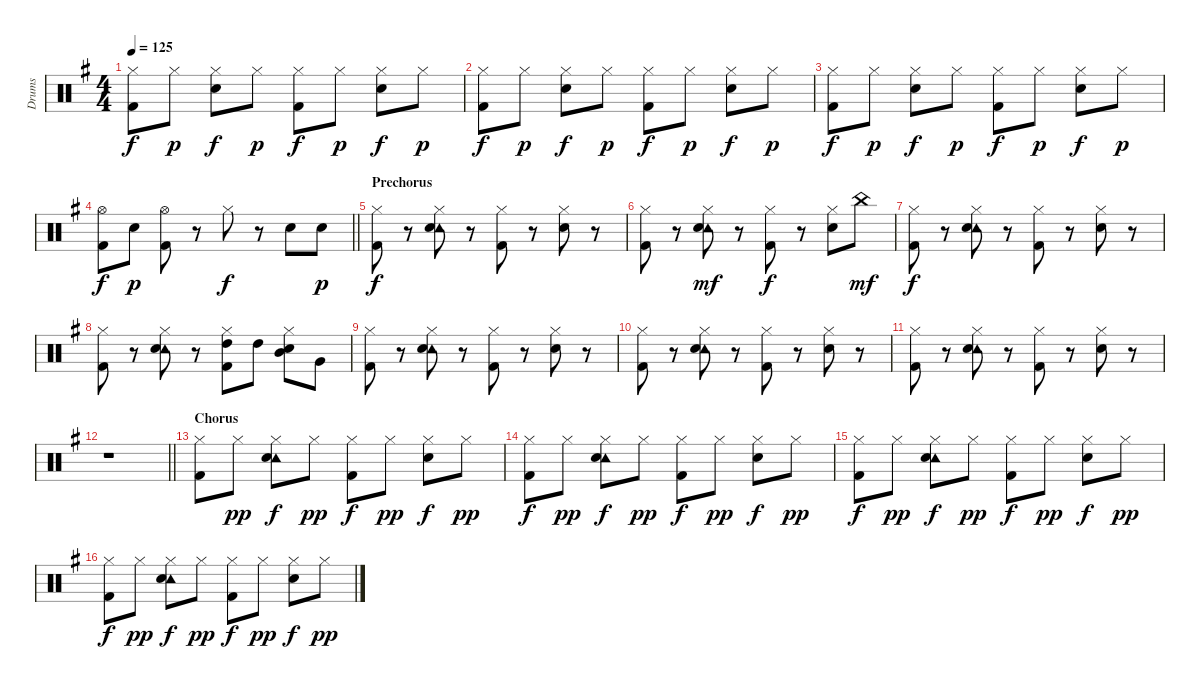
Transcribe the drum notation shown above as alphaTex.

\track ("Drums" "Drums") {instrument percussion}
\staff {score}
\articulation defaults
\ts (4 4)
\tempo 125
\clef neutral
\ks g
("Hi-Hat (closed)" "Kick (hit) 2").8{dy f} "Hi-Hat (closed)".8{dy p} ("Hi-Hat (closed)" "Electric Snare (hit)").8{dy f} "Hi-Hat (closed)".8{dy p} ("Hi-Hat (closed)" "Kick (hit) 2").8{dy f} "Hi-Hat (closed)".8{dy p} ("Hi-Hat (closed)" "Electric Snare (hit)").8{dy f} "Hi-Hat (closed)".8{dy p} |
("Hi-Hat (closed)" "Kick (hit) 2").8{dy f} "Hi-Hat (closed)".8{dy p} ("Hi-Hat (closed)" "Electric Snare (hit)").8{dy f} "Hi-Hat (closed)".8{dy p} ("Hi-Hat (closed)" "Kick (hit) 2").8{dy f} "Hi-Hat (closed)".8{dy p} ("Hi-Hat (closed)" "Electric Snare (hit)").8{dy f} "Hi-Hat (closed)".8{dy p} |
("Hi-Hat (closed)" "Kick (hit) 2").8{dy f} "Hi-Hat (closed)".8{dy p} ("Hi-Hat (closed)" "Electric Snare (hit)").8{dy f} "Hi-Hat (closed)".8{dy p} ("Hi-Hat (closed)" "Kick (hit) 2").8{dy f} "Hi-Hat (closed)".8{dy p} ("Hi-Hat (closed)" "Electric Snare (hit)").8{dy f} "Hi-Hat (closed)".8{dy p} |
\barLineRight lightlight
("Hi-Hat (open)" "Kick (hit) 2").8{dy f} "Electric Snare (hit)".8{dy p} ("Hi-Hat (open)" "Kick (hit) 2").8 r.8 "Hi-Hat (closed)".8{dy f} r.8 "Electric Snare (hit)".8 "Electric Snare (hit)".8{dy p} |
\section ("" "Prechorus")
("Hi-Hat (closed)" "Kick (hit) 2").8{dy f} r.8 ("Hi-Hat (closed)" "Tambourine (hit)" "Electric Snare (hit)").8 r.8 ("Hi-Hat (closed)" "Kick (hit) 2").8 r.8 ("Hi-Hat (closed)" "Electric Snare (hit)").8 r.8 |
("Hi-Hat (closed)" "Kick (hit) 2").8 r.8 ("Hi-Hat (closed)" "Tambourine (hit)" "Electric Snare (hit)").8{dy mf} r.8 ("Hi-Hat (closed)" "Kick (hit) 2").8{dy f} r.8 ("Hi-Hat (closed)" "Electric Snare (hit)").8 "China (hit)".8{dy mf} |
("Hi-Hat (closed)" "Kick (hit) 2").8{dy f} r.8 ("Hi-Hat (closed)" "Tambourine (hit)" "Electric Snare (hit)").8 r.8 ("Hi-Hat (closed)" "Kick (hit) 2").8 r.8 ("Hi-Hat (closed)" "Electric Snare (hit)").8 r.8 |
("Hi-Hat (closed)" "Kick (hit) 2").8 r.8 ("Hi-Hat (closed)" "Tambourine (hit)" "Electric Snare (hit)").8 r.8 ("Hi-Hat (closed)" "High Tom (hit)" "Kick (hit) 2").8 "High Tom (hit)".8 ("Hi-Hat (closed)" "Electric Snare (hit)" "Mid Tom (hit)").8 "Very Low Tom (hit)".8 |
("Hi-Hat (closed)" "Kick (hit) 2").8 r.8 ("Hi-Hat (closed)" "Tambourine (hit)" "Electric Snare (hit)").8 r.8 ("Hi-Hat (closed)" "Kick (hit) 2").8 r.8 ("Hi-Hat (closed)" "Electric Snare (hit)").8 r.8 |
("Hi-Hat (closed)" "Kick (hit) 2").8 r.8 ("Hi-Hat (closed)" "Tambourine (hit)" "Electric Snare (hit)").8 r.8 ("Hi-Hat (closed)" "Kick (hit) 2").8 r.8 ("Hi-Hat (closed)" "Electric Snare (hit)").8 r.8 |
("Hi-Hat (closed)" "Kick (hit) 2").8 r.8 ("Hi-Hat (closed)" "Tambourine (hit)" "Electric Snare (hit)").8 r.8 ("Hi-Hat (closed)" "Kick (hit) 2").8 r.8 ("Hi-Hat (closed)" "Electric Snare (hit)").8 r.8 |
\barLineRight lightlight
r.1 |
\section ("" "Chorus")
("Hi-Hat (closed)" "Kick (hit) 2").8 "Hi-Hat (closed)".8{dy pp} ("Hi-Hat (closed)" "Tambourine (hit)" "Electric Snare (hit)").8{dy f} "Hi-Hat (closed)".8{dy pp} ("Hi-Hat (closed)" "Kick (hit) 2").8{dy f} "Hi-Hat (closed)".8{dy pp} ("Hi-Hat (closed)" "Electric Snare (hit)").8{dy f} "Hi-Hat (closed)".8{dy pp} |
("Hi-Hat (closed)" "Kick (hit) 2").8{dy f} "Hi-Hat (closed)".8{dy pp} ("Hi-Hat (closed)" "Tambourine (hit)" "Electric Snare (hit)").8{dy f} "Hi-Hat (closed)".8{dy pp} ("Hi-Hat (closed)" "Kick (hit) 2").8{dy f} "Hi-Hat (closed)".8{dy pp} ("Hi-Hat (closed)" "Electric Snare (hit)").8{dy f} "Hi-Hat (closed)".8{dy pp} |
("Hi-Hat (closed)" "Kick (hit) 2").8{dy f} "Hi-Hat (closed)".8{dy pp} ("Hi-Hat (closed)" "Tambourine (hit)" "Electric Snare (hit)").8{dy f} "Hi-Hat (closed)".8{dy pp} ("Hi-Hat (closed)" "Kick (hit) 2").8{dy f} "Hi-Hat (closed)".8{dy pp} ("Hi-Hat (closed)" "Electric Snare (hit)").8{dy f} "Hi-Hat (closed)".8{dy pp} |
("Hi-Hat (closed)" "Kick (hit) 2").8{dy f} "Hi-Hat (closed)".8{dy pp} ("Hi-Hat (closed)" "Tambourine (hit)" "Electric Snare (hit)").8{dy f} "Hi-Hat (closed)".8{dy pp} ("Hi-Hat (closed)" "Kick (hit) 2").8{dy f} "Hi-Hat (closed)".8{dy pp} ("Hi-Hat (closed)" "Electric Snare (hit)").8{dy f} "Hi-Hat (closed)".8{dy pp}
